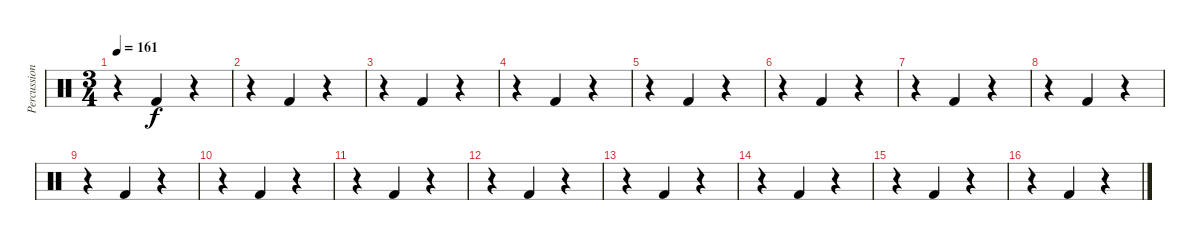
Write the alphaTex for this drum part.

\track ("Percussion" "Percussion") {instrument percussion}
\staff {score}
\articulation defaults
\ts (3 4)
\tempo 161
\clef neutral
\ks c
r.4{dy f} "Kick (hit) 2".4 r.4 |
r.4 "Kick (hit) 2".4 r.4 |
r.4 "Kick (hit) 2".4 r.4 |
r.4 "Kick (hit) 2".4 r.4 |
r.4 "Kick (hit) 2".4 r.4 |
r.4 "Kick (hit) 2".4 r.4 |
r.4 "Kick (hit) 2".4 r.4 |
r.4 "Kick (hit) 2".4 r.4 |
r.4 "Kick (hit) 2".4 r.4 |
r.4 "Kick (hit) 2".4 r.4 |
r.4 "Kick (hit) 2".4 r.4 |
r.4 "Kick (hit) 2".4 r.4 |
r.4 "Kick (hit) 2".4 r.4 |
r.4 "Kick (hit) 2".4 r.4 |
r.4 "Kick (hit) 2".4 r.4 |
r.4 "Kick (hit) 2".4 r.4
